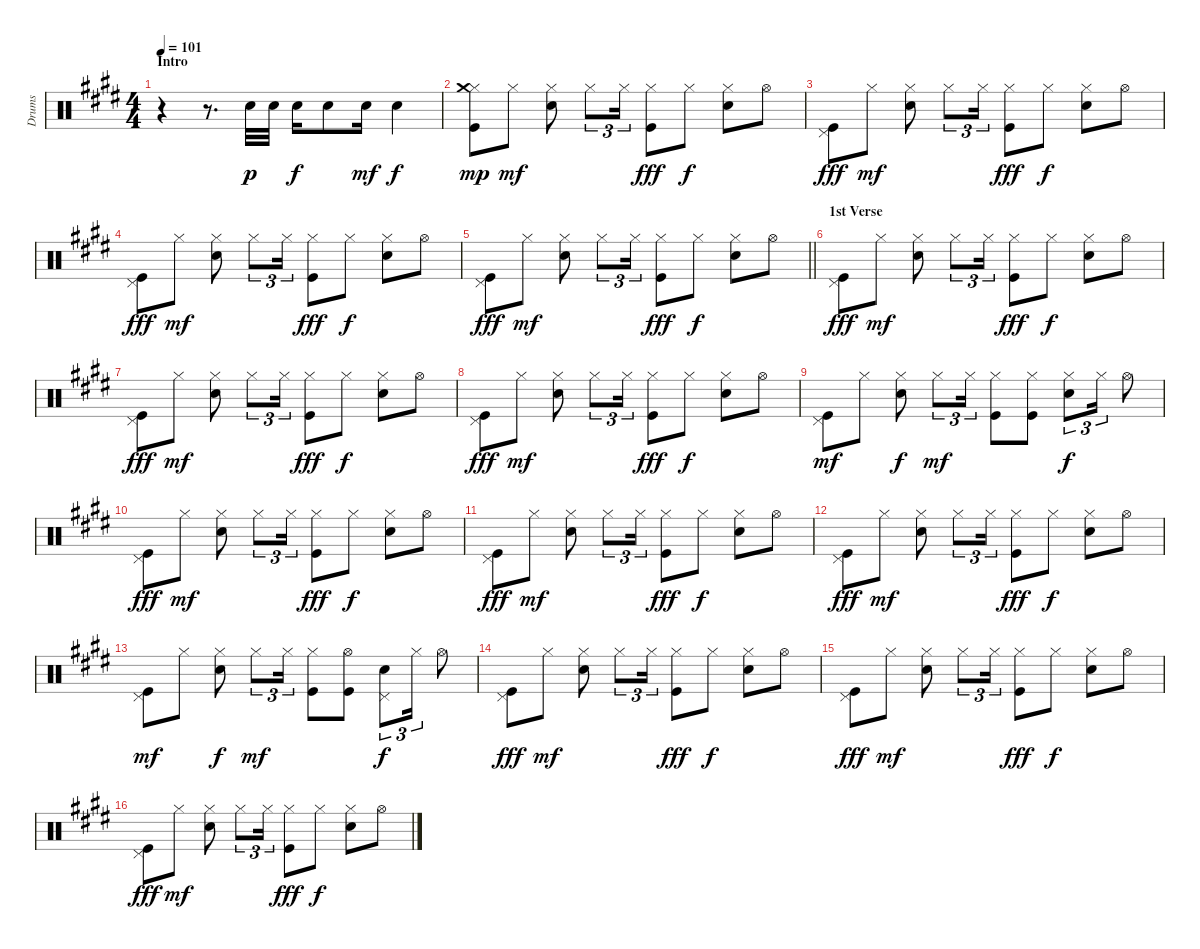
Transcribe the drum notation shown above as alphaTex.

\track ("Drums" "Drums") {instrument percussion}
\staff {score}
\articulation defaults
\ts (4 4)
\section ("" "Intro")
\tempo 101
\clef neutral
\ks e
r.4{dy p} r.8{d} "Electric Snare (hit)".32 "Electric Snare (hit)".32 "Electric Snare (hit)".16{dy f} "Electric Snare (hit)".8 "Electric Snare (hit)".16{dy mf} "Electric Snare (hit)".4{dy f} |
("Kick (hit)" "Hi-Hat (closed)" "Crash medium (hit)").8{dy mp} "Hi-Hat (closed)".8{dy mf} ("Electric Snare (hit)" "Hi-Hat (closed)").8 "Hi-Hat (closed)".8{tu (3 2)} "Hi-Hat (closed)".16{tu (3 2)} ("Kick (hit)" "Hi-Hat (closed)").8{dy fff} "Hi-Hat (closed)".8{dy f} ("Electric Snare (hit)" "Hi-Hat (closed)").8 "Hi-Hat (open)".8 |
("Kick (hit)" "Pedal Hi-Hat (hit)").8{dy fff} "Hi-Hat (closed)".8{dy mf} ("Electric Snare (hit)" "Hi-Hat (closed)").8 "Hi-Hat (closed)".8{tu (3 2)} "Hi-Hat (closed)".16{tu (3 2)} ("Kick (hit)" "Hi-Hat (closed)").8{dy fff} "Hi-Hat (closed)".8{dy f} ("Electric Snare (hit)" "Hi-Hat (closed)").8 "Hi-Hat (open)".8 |
("Kick (hit)" "Pedal Hi-Hat (hit)").8{dy fff} "Hi-Hat (closed)".8{dy mf} ("Electric Snare (hit)" "Hi-Hat (closed)").8 "Hi-Hat (closed)".8{tu (3 2)} "Hi-Hat (closed)".16{tu (3 2)} ("Kick (hit)" "Hi-Hat (closed)").8{dy fff} "Hi-Hat (closed)".8{dy f} ("Electric Snare (hit)" "Hi-Hat (closed)").8 "Hi-Hat (open)".8 |
\barLineRight lightlight
("Kick (hit)" "Pedal Hi-Hat (hit)").8{dy fff} "Hi-Hat (closed)".8{dy mf} ("Electric Snare (hit)" "Hi-Hat (closed)").8 "Hi-Hat (closed)".8{tu (3 2)} "Hi-Hat (closed)".16{tu (3 2)} ("Kick (hit)" "Hi-Hat (closed)").8{dy fff} "Hi-Hat (closed)".8{dy f} ("Electric Snare (hit)" "Hi-Hat (closed)").8 "Hi-Hat (open)".8 |
\section ("" "1st Verse")
("Kick (hit)" "Pedal Hi-Hat (hit)").8{dy fff} "Hi-Hat (closed)".8{dy mf} ("Electric Snare (hit)" "Hi-Hat (closed)").8 "Hi-Hat (closed)".8{tu (3 2)} "Hi-Hat (closed)".16{tu (3 2)} ("Kick (hit)" "Hi-Hat (closed)").8{dy fff} "Hi-Hat (closed)".8{dy f} ("Electric Snare (hit)" "Hi-Hat (closed)").8 "Hi-Hat (open)".8 |
("Kick (hit)" "Pedal Hi-Hat (hit)").8{dy fff} "Hi-Hat (closed)".8{dy mf} ("Electric Snare (hit)" "Hi-Hat (closed)").8 "Hi-Hat (closed)".8{tu (3 2)} "Hi-Hat (closed)".16{tu (3 2)} ("Kick (hit)" "Hi-Hat (closed)").8{dy fff} "Hi-Hat (closed)".8{dy f} ("Electric Snare (hit)" "Hi-Hat (closed)").8 "Hi-Hat (open)".8 |
("Kick (hit)" "Pedal Hi-Hat (hit)").8{dy fff} "Hi-Hat (closed)".8{dy mf} ("Electric Snare (hit)" "Hi-Hat (closed)").8 "Hi-Hat (closed)".8{tu (3 2)} "Hi-Hat (closed)".16{tu (3 2)} ("Kick (hit)" "Hi-Hat (closed)").8{dy fff} "Hi-Hat (closed)".8{dy f} ("Electric Snare (hit)" "Hi-Hat (closed)").8 "Hi-Hat (open)".8 |
("Kick (hit)" "Pedal Hi-Hat (hit)").8{dy mf} "Hi-Hat (closed)".8 ("Electric Snare (hit)" "Hi-Hat (closed)").8{dy f} "Hi-Hat (closed)".8{tu (3 2) dy mf} "Hi-Hat (closed)".16{tu (3 2)} ("Kick (hit)" "Hi-Hat (closed)").8 ("Kick (hit)" "Hi-Hat (closed)").8 ("Electric Snare (hit)" "Hi-Hat (closed)").8{tu (3 2) dy f} "Hi-Hat (closed)".16{tu (3 2)} "Hi-Hat (open)".8 |
("Kick (hit)" "Pedal Hi-Hat (hit)").8{dy fff} "Hi-Hat (closed)".8{dy mf} ("Electric Snare (hit)" "Hi-Hat (closed)").8 "Hi-Hat (closed)".8{tu (3 2)} "Hi-Hat (closed)".16{tu (3 2)} ("Kick (hit)" "Hi-Hat (closed)").8{dy fff} "Hi-Hat (closed)".8{dy f} ("Electric Snare (hit)" "Hi-Hat (closed)").8 "Hi-Hat (open)".8 |
("Kick (hit)" "Pedal Hi-Hat (hit)").8{dy fff} "Hi-Hat (closed)".8{dy mf} ("Electric Snare (hit)" "Hi-Hat (closed)").8 "Hi-Hat (closed)".8{tu (3 2)} "Hi-Hat (closed)".16{tu (3 2)} ("Kick (hit)" "Hi-Hat (closed)").8{dy fff} "Hi-Hat (closed)".8{dy f} ("Electric Snare (hit)" "Hi-Hat (closed)").8 "Hi-Hat (open)".8 |
("Kick (hit)" "Pedal Hi-Hat (hit)").8{dy fff} "Hi-Hat (closed)".8{dy mf} ("Electric Snare (hit)" "Hi-Hat (closed)").8 "Hi-Hat (closed)".8{tu (3 2)} "Hi-Hat (closed)".16{tu (3 2)} ("Kick (hit)" "Hi-Hat (closed)").8{dy fff} "Hi-Hat (closed)".8{dy f} ("Electric Snare (hit)" "Hi-Hat (closed)").8 "Hi-Hat (open)".8 |
("Kick (hit)" "Pedal Hi-Hat (hit)").8{dy mf} "Hi-Hat (closed)".8 ("Electric Snare (hit)" "Hi-Hat (closed)").8{dy f} "Hi-Hat (closed)".8{tu (3 2) dy mf} "Hi-Hat (closed)".16{tu (3 2)} ("Kick (hit)" "Hi-Hat (closed)").8 ("Kick (hit)" "Hi-Hat (open)").8 ("Electric Snare (hit)" "Pedal Hi-Hat (hit)").8{tu (3 2) dy f} "Hi-Hat (closed)".16{tu (3 2)} "Hi-Hat (open)".8 |
("Kick (hit)" "Pedal Hi-Hat (hit)").8{dy fff} "Hi-Hat (closed)".8{dy mf} ("Electric Snare (hit)" "Hi-Hat (closed)").8 "Hi-Hat (closed)".8{tu (3 2)} "Hi-Hat (closed)".16{tu (3 2)} ("Kick (hit)" "Hi-Hat (closed)").8{dy fff} "Hi-Hat (closed)".8{dy f} ("Electric Snare (hit)" "Hi-Hat (closed)").8 "Hi-Hat (open)".8 |
("Kick (hit)" "Pedal Hi-Hat (hit)").8{dy fff} "Hi-Hat (closed)".8{dy mf} ("Electric Snare (hit)" "Hi-Hat (closed)").8 "Hi-Hat (closed)".8{tu (3 2)} "Hi-Hat (closed)".16{tu (3 2)} ("Kick (hit)" "Hi-Hat (closed)").8{dy fff} "Hi-Hat (closed)".8{dy f} ("Electric Snare (hit)" "Hi-Hat (closed)").8 "Hi-Hat (open)".8 |
("Kick (hit)" "Pedal Hi-Hat (hit)").8{dy fff} "Hi-Hat (closed)".8{dy mf} ("Electric Snare (hit)" "Hi-Hat (closed)").8 "Hi-Hat (closed)".8{tu (3 2)} "Hi-Hat (closed)".16{tu (3 2)} ("Kick (hit)" "Hi-Hat (closed)").8{dy fff} "Hi-Hat (closed)".8{dy f} ("Electric Snare (hit)" "Hi-Hat (closed)").8 "Hi-Hat (open)".8
